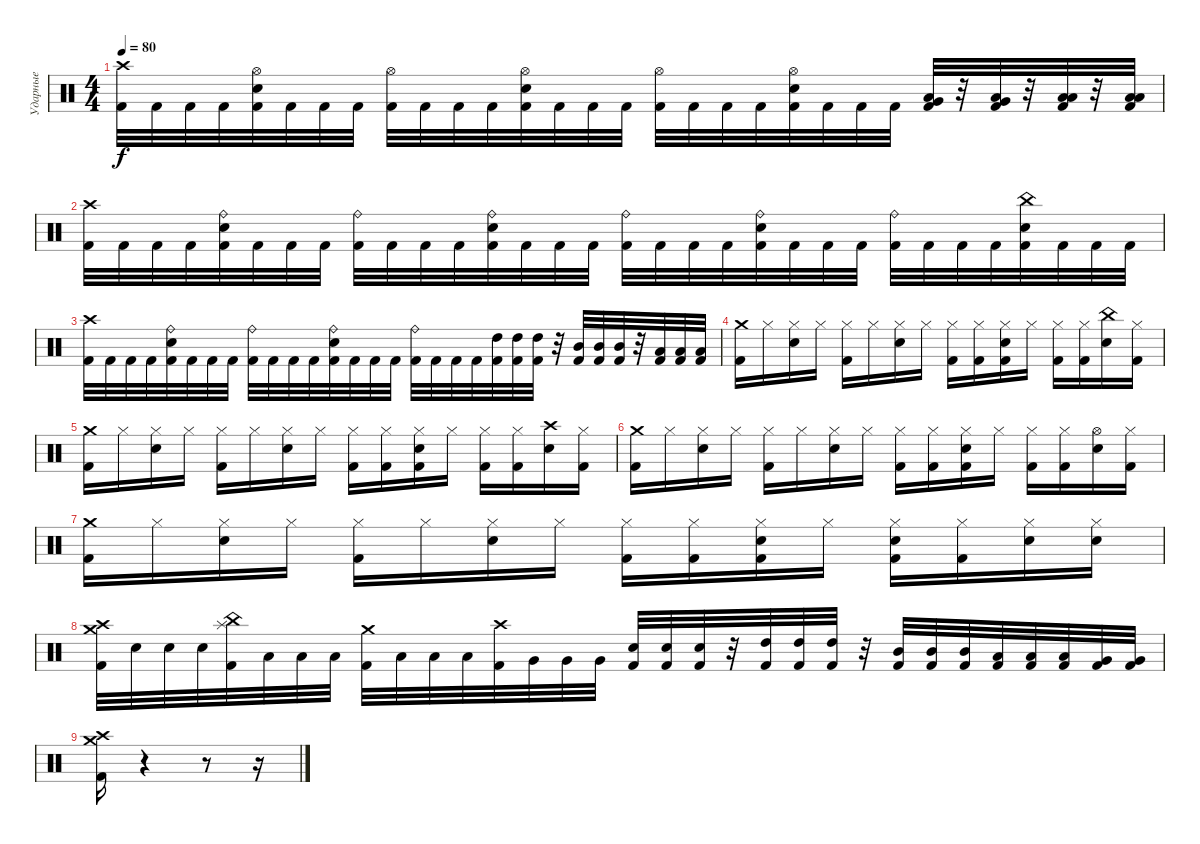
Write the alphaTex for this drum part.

\track ("Ударные" "Ударные") {instrument percussion}
\staff {score}
\articulation defaults
\ts (4 4)
\tempo 80
\clef neutral
\ks c
("Crash high (hit)" "Kick (hit) 2").32{dy f} "Kick (hit) 2".32 "Kick (hit) 2".32 "Kick (hit) 2".32 ("Hi-Hat (open)" "Snare (hit) 2" "Kick (hit) 2").32 "Kick (hit) 2".32 "Kick (hit) 2".32 "Kick (hit) 2".32 ("Hi-Hat (open)" "Kick (hit) 2").32 "Kick (hit) 2".32 "Kick (hit) 2".32 "Kick (hit) 2".32 ("Hi-Hat (open)" "Snare (hit) 2" "Kick (hit) 2").32 "Kick (hit) 2".32 "Kick (hit) 2".32 "Kick (hit) 2".32 ("Hi-Hat (open)" "Kick (hit) 2").32 "Kick (hit) 2".32 "Kick (hit) 2".32 "Kick (hit) 2".32 ("Hi-Hat (open)" "Snare (hit) 2" "Kick (hit) 2").32 "Kick (hit) 2".32 "Kick (hit) 2".32 "Kick (hit) 2".32 ("Low Tom (hit)" "Very Low Tom (hit)" "Kick (hit) 2").32 r.32 ("Low Tom (hit)" "Very Low Tom (hit)" "Kick (hit) 2").32 r.32 ("Low Tom (hit)" "Low Floor Tom (hit)" "Kick (hit) 2").32 r.32 ("Low Tom (hit)" "Low Floor Tom (hit)" "Kick (hit) 2").32 |
("Crash high (hit)" "Kick (hit) 2").32 "Kick (hit) 2".32 "Kick (hit) 2".32 "Kick (hit) 2".32 ("Ride (bell)" "Snare (hit) 2" "Kick (hit) 2").32 "Kick (hit) 2".32 "Kick (hit) 2".32 "Kick (hit) 2".32 ("Ride (bell)" "Kick (hit) 2").32 "Kick (hit) 2".32 "Kick (hit) 2".32 "Kick (hit) 2".32 ("Ride (bell)" "Snare (hit) 2" "Kick (hit) 2").32 "Kick (hit) 2".32 "Kick (hit) 2".32 "Kick (hit) 2".32 ("Ride (bell)" "Kick (hit) 2").32 "Kick (hit) 2".32 "Kick (hit) 2".32 "Kick (hit) 2".32 ("Ride (bell)" "Snare (hit) 2" "Kick (hit) 2").32 "Kick (hit) 2".32 "Kick (hit) 2".32 "Kick (hit) 2".32 ("Ride (bell)" "Kick (hit) 2").32 "Kick (hit) 2".32 "Kick (hit) 2".32 "Kick (hit) 2".32 ("China (hit)" "Snare (hit) 2" "Kick (hit) 2").32 "Kick (hit) 2".32 "Kick (hit) 2".32 "Kick (hit) 2".32 |
("Crash high (hit)" "Kick (hit) 2").32 "Kick (hit) 2".32 "Kick (hit) 2".32 "Kick (hit) 2".32 ("Ride (bell)" "Snare (hit) 2" "Kick (hit) 2").32 "Kick (hit) 2".32 "Kick (hit) 2".32 "Kick (hit) 2".32 ("Ride (bell)" "Kick (hit) 2").32 "Kick (hit) 2".32 "Kick (hit) 2".32 "Kick (hit) 2".32 ("Ride (bell)" "Snare (hit) 2" "Kick (hit) 2").32 "Kick (hit) 2".32 "Kick (hit) 2".32 "Kick (hit) 2".32 ("Ride (bell)" "Kick (hit) 2").32 "Kick (hit) 2".32 "Kick (hit) 2".32 "Kick (hit) 2".32 ("High Tom (hit)" "Kick (hit) 2").32 ("High Tom (hit)" "Kick (hit) 2").32 ("High Tom (hit)" "Kick (hit) 2").32 r.32 ("Mid Tom (hit)" "Kick (hit) 2").32 ("Mid Tom (hit)" "Kick (hit) 2").32 ("Mid Tom (hit)" "Kick (hit) 2").32 r.32 ("Low Tom (hit)" "Kick (hit) 2").32 ("Low Tom (hit)" "Kick (hit) 2").32 ("Low Floor Tom (hit)" "Kick (hit) 2").32 |
("Crash medium (hit)" "Kick (hit) 2").16 "Hi-Hat (closed)".16 ("Hi-Hat (closed)" "Snare (hit) 2").16 "Hi-Hat (closed)".16 ("Hi-Hat (closed)" "Kick (hit) 2").16 "Hi-Hat (closed)".16 ("Hi-Hat (closed)" "Snare (hit) 2").16 "Hi-Hat (closed)".16 ("Hi-Hat (closed)" "Kick (hit) 2").16 ("Hi-Hat (closed)" "Kick (hit) 2").16 ("Hi-Hat (closed)" "Snare (hit) 2" "Kick (hit) 2").16 "Hi-Hat (closed)".16 ("Hi-Hat (closed)" "Kick (hit) 2").16 ("Hi-Hat (closed)" "Kick (hit) 2").16 ("China (hit)" "Snare (hit) 2").16 ("Hi-Hat (closed)" "Kick (hit) 2").16 |
("Crash medium (hit)" "Kick (hit) 2").16 "Hi-Hat (closed)".16 ("Hi-Hat (closed)" "Snare (hit) 2").16 "Hi-Hat (closed)".16 ("Hi-Hat (closed)" "Kick (hit) 2").16 "Hi-Hat (closed)".16 ("Hi-Hat (closed)" "Snare (hit) 2").16 "Hi-Hat (closed)".16 ("Hi-Hat (closed)" "Kick (hit) 2").16 ("Hi-Hat (closed)" "Kick (hit) 2").16 ("Hi-Hat (closed)" "Snare (hit) 2" "Kick (hit) 2").16 "Hi-Hat (closed)".16 ("Hi-Hat (closed)" "Kick (hit) 2").16 ("Hi-Hat (closed)" "Kick (hit) 2").16 ("Crash high (hit)" "Snare (hit) 2").16 ("Hi-Hat (closed)" "Kick (hit) 2").16 |
("Crash medium (hit)" "Kick (hit) 2").16 "Hi-Hat (closed)".16 ("Hi-Hat (closed)" "Snare (hit) 2").16 "Hi-Hat (closed)".16 ("Hi-Hat (closed)" "Kick (hit) 2").16 "Hi-Hat (closed)".16 ("Hi-Hat (closed)" "Snare (hit) 2").16 "Hi-Hat (closed)".16 ("Hi-Hat (closed)" "Kick (hit) 2").16 ("Hi-Hat (closed)" "Kick (hit) 2").16 ("Hi-Hat (closed)" "Snare (hit) 2" "Kick (hit) 2").16 "Hi-Hat (closed)".16 ("Hi-Hat (closed)" "Kick (hit) 2").16 ("Hi-Hat (closed)" "Kick (hit) 2").16 ("Hi-Hat (open)" "Snare (hit) 2").16 ("Hi-Hat (closed)" "Kick (hit) 2").16 |
("Crash medium (hit)" "Kick (hit) 2").16 "Hi-Hat (closed)".16 ("Hi-Hat (closed)" "Snare (hit) 2").16 "Hi-Hat (closed)".16 ("Hi-Hat (closed)" "Kick (hit) 2").16 "Hi-Hat (closed)".16 ("Hi-Hat (closed)" "Snare (hit) 2").16 "Hi-Hat (closed)".16 ("Hi-Hat (closed)" "Kick (hit) 2").16 ("Hi-Hat (closed)" "Kick (hit) 2").16 ("Hi-Hat (closed)" "Snare (hit) 2" "Kick (hit) 2").16 "Hi-Hat (closed)".16 ("Hi-Hat (closed)" "Snare (hit) 2" "Kick (hit) 2").16 ("Hi-Hat (closed)" "Kick (hit) 2").16 ("Hi-Hat (closed)" "Snare (hit) 2").16 ("Hi-Hat (closed)" "Snare (hit) 2").16 |
("Crash medium (hit)" "Crash high (hit)" "Kick (hit) 2").32 "Snare (hit) 2".32 "Snare (hit) 2".32 "Snare (hit) 2".32 ("Splash (hit)" "China (hit)" "Kick (hit) 2").32 "Low Tom (hit)".32 "Low Tom (hit)".32 "Low Tom (hit)".32 ("Crash medium (hit)" "Kick (hit) 2").32 "Low Floor Tom (hit)".32 "Low Floor Tom (hit)".32 "Low Floor Tom (hit)".32 ("Crash high (hit)" "Kick (hit) 2").32 "Very Low Tom (hit)".32 "Very Low Tom (hit)".32 "Very Low Tom (hit)".32 ("Snare (hit) 2" "Kick (hit) 2").32 ("Snare (hit) 2" "Kick (hit) 2").32 ("Snare (hit) 2" "Kick (hit) 2").32 r.32 ("High Tom (hit)" "Kick (hit) 2").32 ("High Tom (hit)" "Kick (hit) 2").32 ("High Tom (hit)" "Kick (hit) 2").32 r.32 ("Mid Tom (hit)" "Kick (hit) 2").32 ("Mid Tom (hit)" "Kick (hit) 2").32 ("Mid Tom (hit)" "Kick (hit) 2").32 ("Low Tom (hit)" "Kick (hit) 2").32 ("Low Tom (hit)" "Kick (hit) 2").32 ("Low Tom (hit)" "Kick (hit) 2").32 ("Very Low Tom (hit)" "Kick (hit) 2").32 ("Very Low Tom (hit)" "Kick (hit) 2").32 |
("Crash medium (hit)" "Crash high (hit)" "Kick (hit) 2").16 r.4 r.8 r.16
